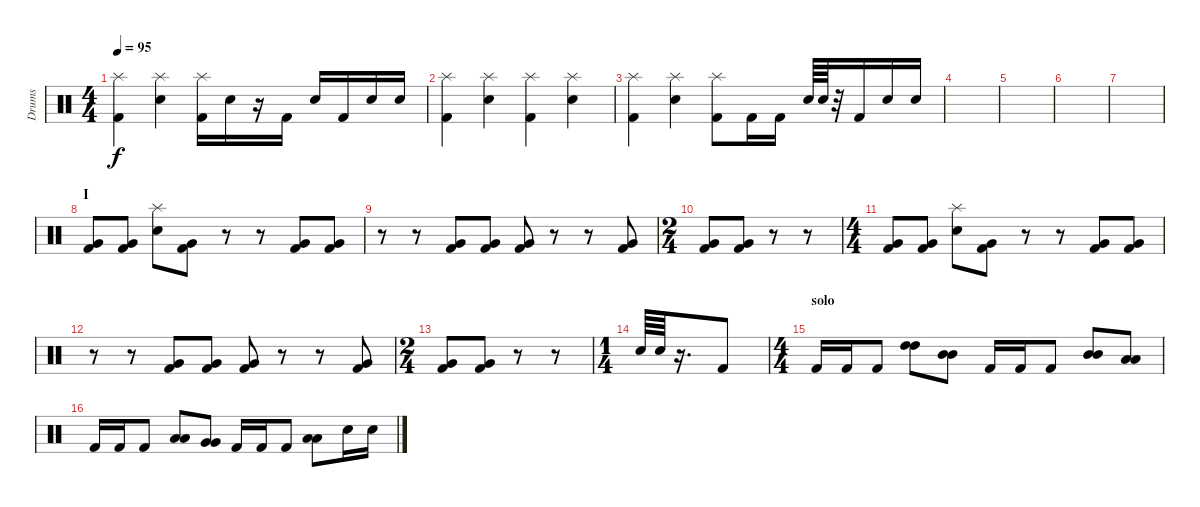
\track ("Drums" "Drums") {instrument percussion}
\staff {score}
\articulation defaults
\ts (4 4)
\tempo 95
\clef neutral
\ks c
("Splash (hit)" "Kick (hit) 2").4{dy f} ("Splash (hit)" "Electric Snare (hit)").4 ("Splash (hit)" "Kick (hit) 2").16 "Electric Snare (hit)".16 r.16 "Kick (hit) 2".16 "Electric Snare (hit)".16 "Kick (hit) 2".16 "Electric Snare (hit)".16 "Electric Snare (hit)".16 |
("Splash (hit)" "Kick (hit) 2").4 ("Splash (hit)" "Electric Snare (hit)").4 ("Splash (hit)" "Kick (hit) 2").4 ("Splash (hit)" "Electric Snare (hit)").4 |
("Splash (hit)" "Kick (hit) 2").4 ("Splash (hit)" "Electric Snare (hit)").4 ("Splash (hit)" "Kick (hit) 2").8 "Kick (hit) 2".16 "Kick (hit) 2".16 "Electric Snare (hit)".64 "Electric Snare (hit)".64 r.32 "Kick (hit) 2".16 "Electric Snare (hit)".16 "Electric Snare (hit)".16 |
|
|
|
|
\section ("" "I")
("Kick (hit) 2" "Very Low Tom (hit)").8 ("Kick (hit) 2" "Very Low Tom (hit)").8 ("Splash (hit)" "Electric Snare (hit)").8 ("Kick (hit) 2" "Very Low Tom (hit)").8 r.8 r.8 ("Very Low Tom (hit)" "Kick (hit) 2").8 ("Very Low Tom (hit)" "Kick (hit) 2").8 |
r.8 r.8 ("Very Low Tom (hit)" "Kick (hit) 2").8 ("Very Low Tom (hit)" "Kick (hit) 2").8 ("Very Low Tom (hit)" "Kick (hit) 2").8 r.8 r.8 ("Very Low Tom (hit)" "Kick (hit) 2").8 |
\ts (2 4)
("Very Low Tom (hit)" "Kick (hit) 2").8 ("Very Low Tom (hit)" "Kick (hit) 2").8 r.8 r.8 |
\ts (4 4)
("Kick (hit) 2" "Very Low Tom (hit)").8 ("Kick (hit) 2" "Very Low Tom (hit)").8 ("Splash (hit)" "Electric Snare (hit)").8 ("Kick (hit) 2" "Very Low Tom (hit)").8 r.8 r.8 ("Very Low Tom (hit)" "Kick (hit) 2").8 ("Very Low Tom (hit)" "Kick (hit) 2").8 |
r.8 r.8 ("Very Low Tom (hit)" "Kick (hit) 2").8 ("Very Low Tom (hit)" "Kick (hit) 2").8 ("Very Low Tom (hit)" "Kick (hit) 2").8 r.8 r.8 ("Very Low Tom (hit)" "Kick (hit) 2").8 |
\ts (2 4)
("Very Low Tom (hit)" "Kick (hit) 2").8 ("Very Low Tom (hit)" "Kick (hit) 2").8 r.8 r.8 |
\ts (1 4)
"Electric Snare (hit)".64 "Electric Snare (hit)".64 r.16{d} "Kick (hit) 2".8 |
\ts (4 4)
\section ("" "solo")
"Kick (hit) 2".16 "Kick (hit) 2".16 "Kick (hit) 2".8 ("High Tom (hit)" "High Tom (hit)").8{bd 60} ("Mid Tom (hit)" "Mid Tom (hit)").8{bd 60} "Kick (hit) 2".16 "Kick (hit) 2".16 "Kick (hit) 2".8 ("Mid Tom (hit)" "Mid Tom (hit)").8{bd 60} ("Low Tom (hit)" "Low Tom (hit)").8{bd 60} |
"Kick (hit) 2".16 "Kick (hit) 2".16 "Kick (hit) 2".8 ("Low Tom (hit)" "Low Tom (hit)").8{bd 60} ("Very Low Tom (hit)" "Very Low Tom (hit)").8{bd 60} "Kick (hit) 2".16 "Kick (hit) 2".16 "Kick (hit) 2".8 ("Low Floor Tom (hit)" "Low Floor Tom (hit)").8{bd 60} "Electric Snare (hit)".16 "Electric Snare (hit)".16
